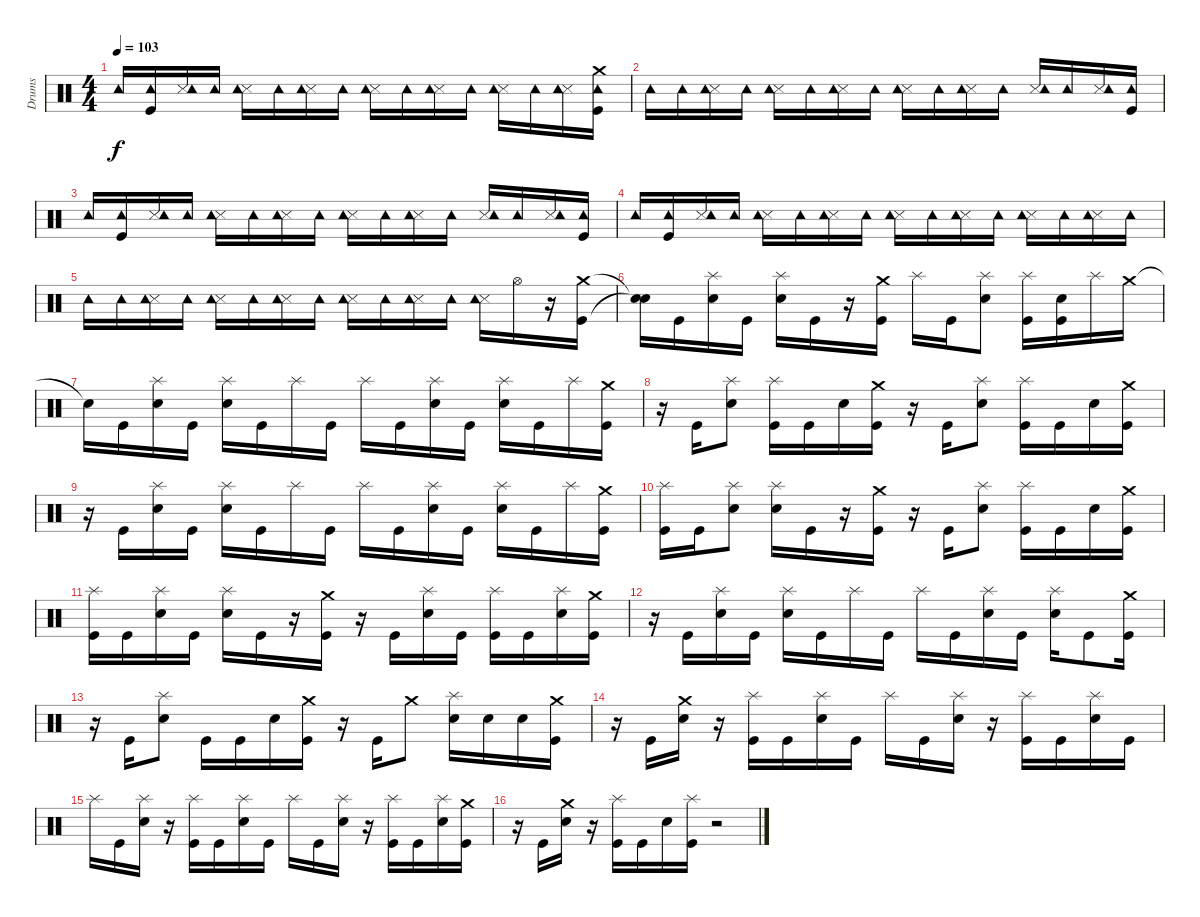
\track ("Drums" "Drums") {instrument percussion}
\staff {score}
\articulation defaults
\ts (4 4)
\tempo 103
\clef neutral
\ks c "Tambourine (hit)".16{dy f}
("Tambourine (hit)" "Kick (hit)").16 ("Snare (side stick) 3" "Tambourine (hit)").16 "Tambourine (hit)".16 ("Snare (side stick) 3" "Tambourine (hit)").16 "Tambourine (hit)".16 ("Snare (side stick) 3" "Tambourine (hit)").16 "Tambourine (hit)".16 ("Snare (side stick) 3" "Tambourine (hit)").16 "Tambourine (hit)".16 ("Snare (side stick) 3" "Tambourine (hit)").16 "Tambourine (hit)".16 ("Snare (side stick) 3" "Tambourine (hit)").16 "Tambourine (hit)".16 ("Snare (side stick) 3" "Tambourine (hit)").16 ("Crash medium (hit)" "Kick (hit)" "Tambourine (hit)").16 |
"Tambourine (hit)".16 "Tambourine (hit)".16 ("Snare (side stick) 3" "Tambourine (hit)").16 "Tambourine (hit)".16 ("Snare (side stick) 3" "Tambourine (hit)").16 "Tambourine (hit)".16 ("Snare (side stick) 3" "Tambourine (hit)").16 "Tambourine (hit)".16 ("Snare (side stick) 3" "Tambourine (hit)").16 "Tambourine (hit)".16 ("Snare (side stick) 3" "Tambourine (hit)").16 "Tambourine (hit)".16 ("Snare (side stick) 3" "Tambourine (hit)").16 "Tambourine (hit)".16 ("Snare (side stick) 3" "Tambourine (hit)").16 ("Kick (hit)" "Tambourine (hit)").16 |
"Tambourine (hit)".16 ("Tambourine (hit)" "Kick (hit)").16 ("Snare (side stick) 3" "Tambourine (hit)").16 "Tambourine (hit)".16 ("Snare (side stick) 3" "Tambourine (hit)").16 "Tambourine (hit)".16 ("Snare (side stick) 3" "Tambourine (hit)").16 "Tambourine (hit)".16 ("Snare (side stick) 3" "Tambourine (hit)").16 "Tambourine (hit)".16 ("Snare (side stick) 3" "Tambourine (hit)").16 "Tambourine (hit)".16 ("Snare (side stick) 3" "Tambourine (hit)").16 "Tambourine (hit)".16 ("Snare (side stick) 3" "Tambourine (hit)").16 ("Kick (hit)" "Tambourine (hit)").16 |
"Tambourine (hit)".16 ("Tambourine (hit)" "Kick (hit)").16 ("Snare (side stick) 3" "Tambourine (hit)").16 "Tambourine (hit)".16 ("Snare (side stick) 3" "Tambourine (hit)").16 "Tambourine (hit)".16 ("Snare (side stick) 3" "Tambourine (hit)").16 "Tambourine (hit)".16 ("Snare (side stick) 3" "Tambourine (hit)").16 "Tambourine (hit)".16 ("Snare (side stick) 3" "Tambourine (hit)").16 "Tambourine (hit)".16 ("Snare (side stick) 3" "Tambourine (hit)").16 "Tambourine (hit)".16 ("Snare (side stick) 3" "Tambourine (hit)").16 "Tambourine (hit)".16 |
"Tambourine (hit)".16 "Tambourine (hit)".16 ("Snare (side stick) 3" "Tambourine (hit)").16 "Tambourine (hit)".16 ("Snare (side stick) 3" "Tambourine (hit)").16 "Tambourine (hit)".16 ("Snare (side stick) 3" "Tambourine (hit)").16 "Tambourine (hit)".16 ("Snare (side stick) 3" "Tambourine (hit)").16 "Tambourine (hit)".16 ("Snare (side stick) 3" "Tambourine (hit)").16 "Tambourine (hit)".16 ("Snare (side stick) 3" "Tambourine (hit)").16 "Hi-Hat (open)".16 r.16 ("Kick (hit)" "Crash medium (hit)").16 |
("Snare (hit)"{t} "Snare (hit)"{t}).16 "Kick (hit)".16 ("Splash (hit)" "Electric Snare (hit)").16 "Kick (hit)".16 ("Splash (hit)" "Electric Snare (hit)").16 "Kick (hit)".16 r.16 ("Crash medium (hit)" "Kick (hit)").16 "Splash (hit)".16 "Kick (hit)".16 ("Splash (hit)" "Electric Snare (hit)").8 ("Kick (hit)" "Splash (hit)").16 ("Electric Snare (hit)" "Kick (hit)").16 "Splash (hit)".16 "Crash medium (hit)".16 |
"Snare (hit)"{t}.16 "Kick (hit)".16 ("Splash (hit)" "Electric Snare (hit)").16 "Kick (hit)".16 ("Splash (hit)" "Electric Snare (hit)").16 "Kick (hit)".16 "Splash (hit)".16 "Kick (hit)".16 "Splash (hit)".16 "Kick (hit)".16 ("Splash (hit)" "Electric Snare (hit)").16 "Kick (hit)".16 ("Splash (hit)" "Electric Snare (hit)").16 "Kick (hit)".16 "Splash (hit)".16 ("Crash medium (hit)" "Kick (hit)").16 |
r.16 "Kick (hit)".16 ("Splash (hit)" "Electric Snare (hit)").8 ("Kick (hit)" "Splash (hit)").16 "Kick (hit)".16 "Electric Snare (hit)".16 ("Crash medium (hit)" "Kick (hit)").16 r.16 "Kick (hit)".16 ("Splash (hit)" "Electric Snare (hit)").8 ("Kick (hit)" "Splash (hit)").16 "Kick (hit)".16 "Electric Snare (hit)".16 ("Crash medium (hit)" "Kick (hit)").16 |
r.16 "Kick (hit)".16 ("Splash (hit)" "Electric Snare (hit)").16 "Kick (hit)".16 ("Splash (hit)" "Electric Snare (hit)").16 "Kick (hit)".16 "Splash (hit)".16 "Kick (hit)".16 "Splash (hit)".16 "Kick (hit)".16 ("Splash (hit)" "Electric Snare (hit)").16 "Kick (hit)".16 ("Splash (hit)" "Electric Snare (hit)").16 "Kick (hit)".16 "Splash (hit)".16 ("Kick (hit)" "Crash medium (hit)").16 |
("Splash (hit)" "Kick (hit)").16 "Kick (hit)".16 ("Splash (hit)" "Electric Snare (hit)").8 ("Electric Snare (hit)" "Splash (hit)").16 "Kick (hit)".16 r.16 ("Crash medium (hit)" "Kick (hit)").16 r.16 "Kick (hit)".16 ("Splash (hit)" "Electric Snare (hit)").8 ("Kick (hit)" "Splash (hit)").16 "Kick (hit)".16 "Electric Snare (hit)".16 ("Crash medium (hit)" "Kick (hit)").16 |
("Splash (hit)" "Kick (hit)").16 "Kick (hit)".16 ("Splash (hit)" "Electric Snare (hit)").16 "Kick (hit)".16 ("Splash (hit)" "Electric Snare (hit)").16 "Kick (hit)".16 r.16 ("Crash medium (hit)" "Kick (hit)").16 r.16 "Kick (hit)".16 ("Splash (hit)" "Electric Snare (hit)").16 "Kick (hit)".16 ("Kick (hit)" "Splash (hit)").16 "Kick (hit)".16 ("Electric Snare (hit)" "Splash (hit)").16 ("Crash medium (hit)" "Kick (hit)").16 |
r.16 "Kick (hit)".16 ("Splash (hit)" "Electric Snare (hit)").16 "Kick (hit)".16 ("Splash (hit)" "Electric Snare (hit)").16 "Kick (hit)".16 "Splash (hit)".16 "Kick (hit)".16 "Splash (hit)".16 "Kick (hit)".16 ("Splash (hit)" "Electric Snare (hit)").16 "Kick (hit)".16 ("Splash (hit)" "Electric Snare (hit)").16 "Kick (hit)".8 ("Crash medium (hit)" "Kick (hit)").16 |
r.16 "Kick (hit)".16 ("Splash (hit)" "Electric Snare (hit)").8 "Kick (hit)".16 "Kick (hit)".16 "Electric Snare (hit)".16 ("Crash medium (hit)" "Kick (hit)").16 r.16 "Kick (hit)".16 "Crash medium (hit)".8 ("Splash (hit)" "Electric Snare (hit)").16 "Electric Snare (hit)".16 "Electric Snare (hit)".16 ("Crash medium (hit)" "Kick (hit)").16 |
r.16 "Kick (hit)".16 ("Electric Snare (hit)" "Crash medium (hit)").16 r.16 ("Kick (hit)" "Splash (hit)").16 "Kick (hit)".16 ("Splash (hit)" "Electric Snare (hit)").16 "Kick (hit)".16 "Splash (hit)".16 "Kick (hit)".16 ("Splash (hit)" "Electric Snare (hit)").16 r.16 ("Splash (hit)" "Kick (hit)").16 "Kick (hit)".16 ("Splash (hit)" "Electric Snare (hit)").16 "Kick (hit)".16 |
"Splash (hit)".16 "Kick (hit)".16 ("Splash (hit)" "Electric Snare (hit)").16 r.16 ("Splash (hit)" "Kick (hit)").16 "Kick (hit)".16 ("Splash (hit)" "Electric Snare (hit)").16 "Kick (hit)".16 "Splash (hit)".16 "Kick (hit)".16 ("Splash (hit)" "Electric Snare (hit)").16 r.16 ("Kick (hit)" "Splash (hit)").16 "Kick (hit)".16 ("Splash (hit)" "Electric Snare (hit)").16 ("Crash medium (hit)" "Kick (hit)").16 |
r.16 "Kick (hit)".16 ("Crash medium (hit)" "Electric Snare (hit)").16 r.16 ("Kick (hit)" "Splash (hit)").16 "Kick (hit)".16 "Electric Snare (hit)".16 ("Splash (hit)" "Kick (hit)").16 r.2
